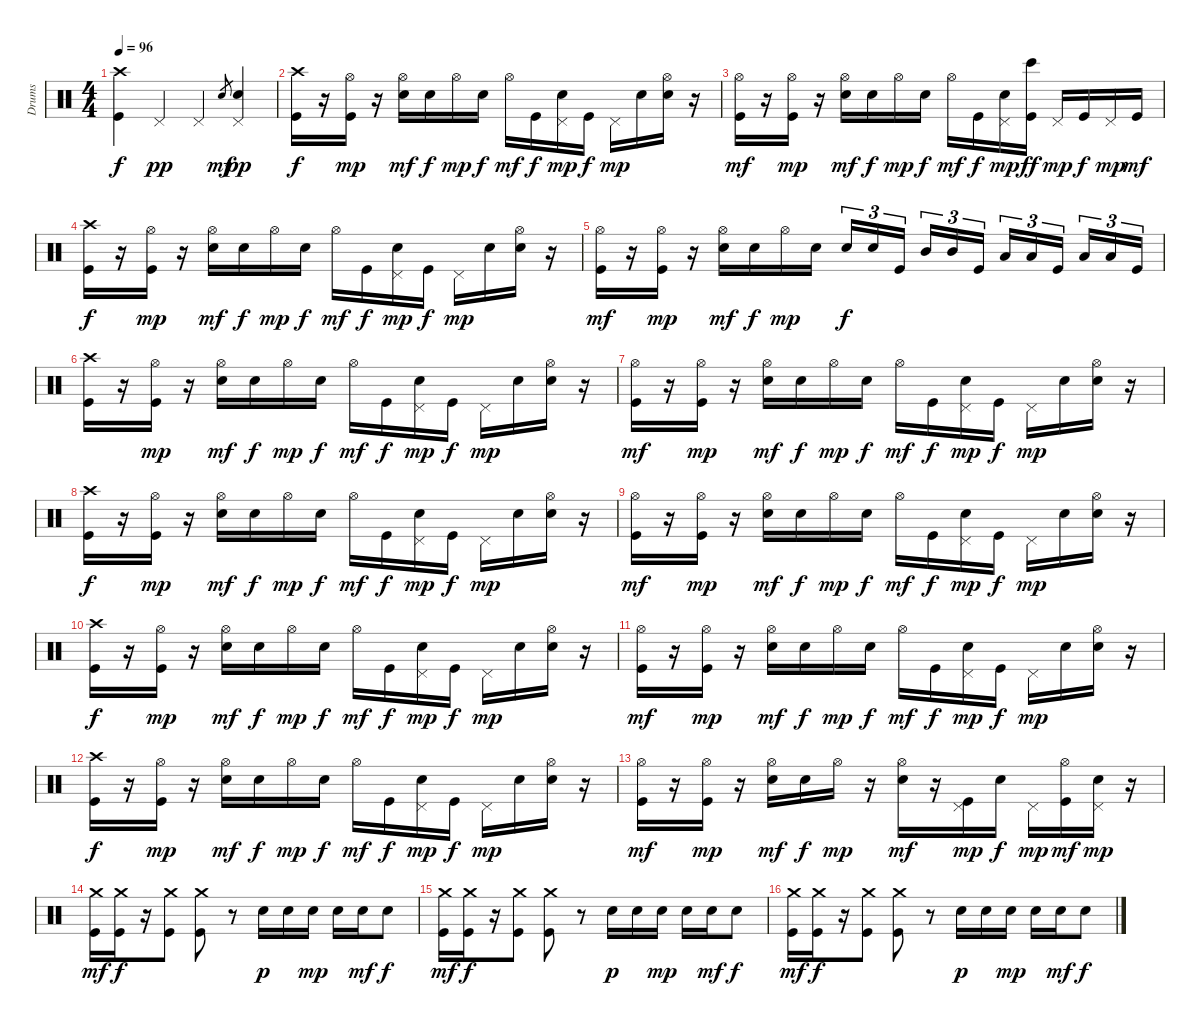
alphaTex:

\track ("Drums" "Drums") {instrument percussion}
\staff {score}
\articulation defaults
\ts (4 4)
\tempo 96
\clef neutral
\ks c
("Crash high (hit)" "Kick (hit)").4{dy f} "Pedal Hi-Hat (hit)".4{dy pp} "Pedal Hi-Hat (hit)".4 "Snare (hit) 2".8{gr dy mf} ("Pedal Hi-Hat (hit)" "Snare (hit) 2").4{dy pp} |
("Crash high (hit)" "Kick (hit)").16{dy f} r.16 ("Hi-Hat (open)" "Kick (hit)").16{dy mp} r.16 ("Hi-Hat (open)" "Snare (hit) 2").16{dy mf} "Snare (hit) 2".16{dy f} "Hi-Hat (open)".16{dy mp} "Snare (hit) 2".16{dy f} "Hi-Hat (open)".16{dy mf} "Kick (hit)".16{dy f} ("Pedal Hi-Hat (hit)" "Snare (hit) 2").16{dy mp} "Kick (hit)".16{dy f} "Pedal Hi-Hat (hit)".16{dy mp} "Snare (hit) 2".16 ("Hi-Hat (open)" "Snare (hit) 2").16 r.16 |
("Hi-Hat (open)" "Kick (hit)").16{dy mf} r.16 ("Hi-Hat (open)" "Kick (hit)").16{dy mp} r.16 ("Hi-Hat (open)" "Snare (hit) 2").16{dy mf} "Snare (hit) 2".16{dy f} "Hi-Hat (open)".16{dy mp} "Snare (hit) 2".16{dy f} "Hi-Hat (open)".16{dy mf} "Kick (hit)".16{dy f} ("Pedal Hi-Hat (hit)" "Snare (hit) 2").16{dy mp} ("Bongo High (hit)" "Kick (hit)").16{dy ff} "Pedal Hi-Hat (hit)".16{dy mp} "Kick (hit)".16{dy f} "Pedal Hi-Hat (hit)".16{dy mp} "Kick (hit)".16{dy mf} |
("Crash high (hit)" "Kick (hit)").16{dy f} r.16 ("Hi-Hat (open)" "Kick (hit)").16{dy mp} r.16 ("Hi-Hat (open)" "Snare (hit) 2").16{dy mf} "Snare (hit) 2".16{dy f} "Hi-Hat (open)".16{dy mp} "Snare (hit) 2".16{dy f} "Hi-Hat (open)".16{dy mf} "Kick (hit)".16{dy f} ("Pedal Hi-Hat (hit)" "Snare (hit) 2").16{dy mp} "Kick (hit)".16{dy f} "Pedal Hi-Hat (hit)".16{dy mp} "Snare (hit) 2".16 ("Hi-Hat (open)" "Snare (hit) 2").16 r.16 |
("Hi-Hat (open)" "Kick (hit)").16{dy mf} r.16 ("Hi-Hat (open)" "Kick (hit)").16{dy mp} r.16 ("Hi-Hat (open)" "Snare (hit) 2").16{dy mf} "Snare (hit) 2".16{dy f} "Hi-Hat (open)".16{dy mp} "Snare (hit) 2".16 "Snare (hit) 2".16{tu (3 2) dy f} "Snare (hit) 2".16{tu (3 2)} "Kick (hit)".16{tu (3 2)} "Mid Tom (hit)".16{tu (3 2)} "Mid Tom (hit)".16{tu (3 2)} "Kick (hit)".16{tu (3 2)} "Low Tom (hit)".16{tu (3 2)} "Low Tom (hit)".16{tu (3 2)} "Kick (hit)".16{tu (3 2)} "Low Tom (hit)".16{tu (3 2)} "Low Tom (hit)".16{tu (3 2)} "Kick (hit)".16{tu (3 2)} |
("Crash high (hit)" "Kick (hit)").16 r.16 ("Hi-Hat (open)" "Kick (hit)").16{dy mp} r.16 ("Hi-Hat (open)" "Snare (hit) 2").16{dy mf} "Snare (hit) 2".16{dy f} "Hi-Hat (open)".16{dy mp} "Snare (hit) 2".16{dy f} "Hi-Hat (open)".16{dy mf} "Kick (hit)".16{dy f} ("Pedal Hi-Hat (hit)" "Snare (hit) 2").16{dy mp} "Kick (hit)".16{dy f} "Pedal Hi-Hat (hit)".16{dy mp} "Snare (hit) 2".16 ("Hi-Hat (open)" "Snare (hit) 2").16 r.16 |
("Hi-Hat (open)" "Kick (hit)").16{dy mf} r.16 ("Hi-Hat (open)" "Kick (hit)").16{dy mp} r.16 ("Hi-Hat (open)" "Snare (hit) 2").16{dy mf} "Snare (hit) 2".16{dy f} "Hi-Hat (open)".16{dy mp} "Snare (hit) 2".16{dy f} "Hi-Hat (open)".16{dy mf} "Kick (hit)".16{dy f} ("Pedal Hi-Hat (hit)" "Snare (hit) 2").16{dy mp} "Kick (hit)".16{dy f} "Pedal Hi-Hat (hit)".16{dy mp} "Snare (hit) 2".16 ("Hi-Hat (open)" "Snare (hit) 2").16 r.16 |
("Crash high (hit)" "Kick (hit)").16{dy f} r.16 ("Hi-Hat (open)" "Kick (hit)").16{dy mp} r.16 ("Hi-Hat (open)" "Snare (hit) 2").16{dy mf} "Snare (hit) 2".16{dy f} "Hi-Hat (open)".16{dy mp} "Snare (hit) 2".16{dy f} "Hi-Hat (open)".16{dy mf} "Kick (hit)".16{dy f} ("Pedal Hi-Hat (hit)" "Snare (hit) 2").16{dy mp} "Kick (hit)".16{dy f} "Pedal Hi-Hat (hit)".16{dy mp} "Snare (hit) 2".16 ("Hi-Hat (open)" "Snare (hit) 2").16 r.16 |
("Hi-Hat (open)" "Kick (hit)").16{dy mf} r.16 ("Hi-Hat (open)" "Kick (hit)").16{dy mp} r.16 ("Hi-Hat (open)" "Snare (hit) 2").16{dy mf} "Snare (hit) 2".16{dy f} "Hi-Hat (open)".16{dy mp} "Snare (hit) 2".16{dy f} "Hi-Hat (open)".16{dy mf} "Kick (hit)".16{dy f} ("Pedal Hi-Hat (hit)" "Snare (hit) 2").16{dy mp} "Kick (hit)".16{dy f} "Pedal Hi-Hat (hit)".16{dy mp} "Snare (hit) 2".16 ("Hi-Hat (open)" "Snare (hit) 2").16 r.16 |
("Crash high (hit)" "Kick (hit)").16{dy f} r.16 ("Hi-Hat (open)" "Kick (hit)").16{dy mp} r.16 ("Hi-Hat (open)" "Snare (hit) 2").16{dy mf} "Snare (hit) 2".16{dy f} "Hi-Hat (open)".16{dy mp} "Snare (hit) 2".16{dy f} "Hi-Hat (open)".16{dy mf} "Kick (hit)".16{dy f} ("Pedal Hi-Hat (hit)" "Snare (hit) 2").16{dy mp} "Kick (hit)".16{dy f} "Pedal Hi-Hat (hit)".16{dy mp} "Snare (hit) 2".16 ("Hi-Hat (open)" "Snare (hit) 2").16 r.16 |
("Hi-Hat (open)" "Kick (hit)").16{dy mf} r.16 ("Hi-Hat (open)" "Kick (hit)").16{dy mp} r.16 ("Hi-Hat (open)" "Snare (hit) 2").16{dy mf} "Snare (hit) 2".16{dy f} "Hi-Hat (open)".16{dy mp} "Snare (hit) 2".16{dy f} "Hi-Hat (open)".16{dy mf} "Kick (hit)".16{dy f} ("Pedal Hi-Hat (hit)" "Snare (hit) 2").16{dy mp} "Kick (hit)".16{dy f} "Pedal Hi-Hat (hit)".16{dy mp} "Snare (hit) 2".16 ("Hi-Hat (open)" "Snare (hit) 2").16 r.16 |
("Crash high (hit)" "Kick (hit)").16{dy f} r.16 ("Hi-Hat (open)" "Kick (hit)").16{dy mp} r.16 ("Hi-Hat (open)" "Snare (hit) 2").16{dy mf} "Snare (hit) 2".16{dy f} "Hi-Hat (open)".16{dy mp} "Snare (hit) 2".16{dy f} "Hi-Hat (open)".16{dy mf} "Kick (hit)".16{dy f} ("Pedal Hi-Hat (hit)" "Snare (hit) 2").16{dy mp} "Kick (hit)".16{dy f} "Pedal Hi-Hat (hit)".16{dy mp} "Snare (hit) 2".16 ("Hi-Hat (open)" "Snare (hit) 2").16 r.16 |
("Hi-Hat (open)" "Kick (hit)").16{dy mf} r.16 ("Hi-Hat (open)" "Kick (hit)").16{dy mp} r.16 ("Hi-Hat (open)" "Snare (hit) 2").16{dy mf} "Snare (hit) 2".16{dy f} "Hi-Hat (open)".16{dy mp} r.16 ("Hi-Hat (open)" "Snare (hit) 2").16{dy mf} r.16 ("Pedal Hi-Hat (hit)" "Kick (hit)").16{dy mp} "Snare (hit) 2".16{dy f} "Pedal Hi-Hat (hit)".16{dy mp} ("Hi-Hat (open)" "Kick (hit)").16{dy mf} ("Pedal Hi-Hat (hit)" "Snare (hit) 2").16{dy mp} r.16 |
("Crash medium (hit)" "Kick (hit)").16{dy mf} ("Crash medium (hit)" "Kick (hit)").16{dy f} r.16 ("Crash medium (hit)" "Kick (hit)").8 ("Crash medium (hit)" "Kick (hit)").8 r.8 "Snare (hit) 2".16{dy p} "Snare (hit) 2".16 "Snare (hit) 2".16{dy mp} "Snare (hit) 2".16 "Snare (hit) 2".16{dy mf} "Snare (hit) 2".8{dy f} |
("Crash medium (hit)" "Kick (hit)").16{dy mf} ("Crash medium (hit)" "Kick (hit)").16{dy f} r.16 ("Crash medium (hit)" "Kick (hit)").8 ("Crash medium (hit)" "Kick (hit)").8 r.8 "Snare (hit) 2".16{dy p} "Snare (hit) 2".16 "Snare (hit) 2".16{dy mp} "Snare (hit) 2".16 "Snare (hit) 2".16{dy mf} "Snare (hit) 2".8{dy f} |
("Crash medium (hit)" "Kick (hit)").16{dy mf} ("Crash medium (hit)" "Kick (hit)").16{dy f} r.16 ("Crash medium (hit)" "Kick (hit)").8 ("Crash medium (hit)" "Kick (hit)").8 r.8 "Snare (hit) 2".16{dy p} "Snare (hit) 2".16 "Snare (hit) 2".16{dy mp} "Snare (hit) 2".16 "Snare (hit) 2".16{dy mf} "Snare (hit) 2".8{dy f}
